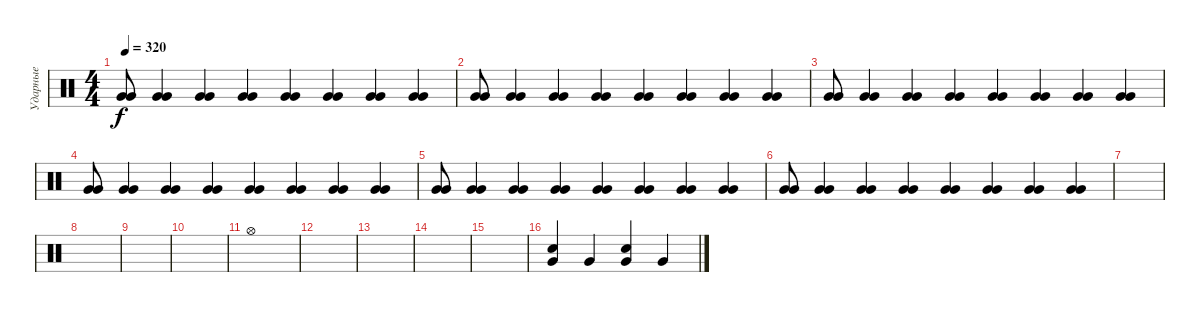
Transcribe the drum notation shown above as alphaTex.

\track ("Ударные" "Ударные") {instrument percussion}
\staff {score}
\articulation defaults
\ts (4 4)
\tempo 320
\clef neutral
\ks c
("Very Low Tom (hit)" "Very Low Tom (hit)").8{dy f} ("Very Low Tom (hit)" "Very Low Tom (hit)").4 ("Very Low Tom (hit)" "Very Low Tom (hit)").4 ("Very Low Tom (hit)" "Very Low Tom (hit)").4 ("Very Low Tom (hit)" "Very Low Tom (hit)").4 ("Very Low Tom (hit)" "Very Low Tom (hit)").4 ("Very Low Tom (hit)" "Very Low Tom (hit)").4 ("Very Low Tom (hit)" "Very Low Tom (hit)").4 |
("Very Low Tom (hit)" "Very Low Tom (hit)").8 ("Very Low Tom (hit)" "Very Low Tom (hit)").4 ("Very Low Tom (hit)" "Very Low Tom (hit)").4 ("Very Low Tom (hit)" "Very Low Tom (hit)").4 ("Very Low Tom (hit)" "Very Low Tom (hit)").4 ("Very Low Tom (hit)" "Very Low Tom (hit)").4 ("Very Low Tom (hit)" "Very Low Tom (hit)").4 ("Very Low Tom (hit)" "Very Low Tom (hit)").4 |
("Very Low Tom (hit)" "Very Low Tom (hit)").8 ("Very Low Tom (hit)" "Very Low Tom (hit)").4 ("Very Low Tom (hit)" "Very Low Tom (hit)").4 ("Very Low Tom (hit)" "Very Low Tom (hit)").4 ("Very Low Tom (hit)" "Very Low Tom (hit)").4 ("Very Low Tom (hit)" "Very Low Tom (hit)").4 ("Very Low Tom (hit)" "Very Low Tom (hit)").4 ("Very Low Tom (hit)" "Very Low Tom (hit)").4 |
("Very Low Tom (hit)" "Very Low Tom (hit)").8 ("Very Low Tom (hit)" "Very Low Tom (hit)").4 ("Very Low Tom (hit)" "Very Low Tom (hit)").4 ("Very Low Tom (hit)" "Very Low Tom (hit)").4 ("Very Low Tom (hit)" "Very Low Tom (hit)").4 ("Very Low Tom (hit)" "Very Low Tom (hit)").4 ("Very Low Tom (hit)" "Very Low Tom (hit)").4 ("Very Low Tom (hit)" "Very Low Tom (hit)").4 |
("Very Low Tom (hit)" "Very Low Tom (hit)").8 ("Very Low Tom (hit)" "Very Low Tom (hit)").4 ("Very Low Tom (hit)" "Very Low Tom (hit)").4 ("Very Low Tom (hit)" "Very Low Tom (hit)").4 ("Very Low Tom (hit)" "Very Low Tom (hit)").4 ("Very Low Tom (hit)" "Very Low Tom (hit)").4 ("Very Low Tom (hit)" "Very Low Tom (hit)").4 ("Very Low Tom (hit)" "Very Low Tom (hit)").4 |
("Very Low Tom (hit)" "Very Low Tom (hit)").8 ("Very Low Tom (hit)" "Very Low Tom (hit)").4 ("Very Low Tom (hit)" "Very Low Tom (hit)").4 ("Very Low Tom (hit)" "Very Low Tom (hit)").4 ("Very Low Tom (hit)" "Very Low Tom (hit)").4 ("Very Low Tom (hit)" "Very Low Tom (hit)").4 ("Very Low Tom (hit)" "Very Low Tom (hit)").4 ("Very Low Tom (hit)" "Very Low Tom (hit)").4 |
|
|
|
|
"Hi-Hat (open)".1 |
|
|
|
|
("Very Low Tom (hit)" "Electric Snare (hit)").4 "Very Low Tom (hit)".4 ("Very Low Tom (hit)" "Electric Snare (hit)").4 "Very Low Tom (hit)".4
